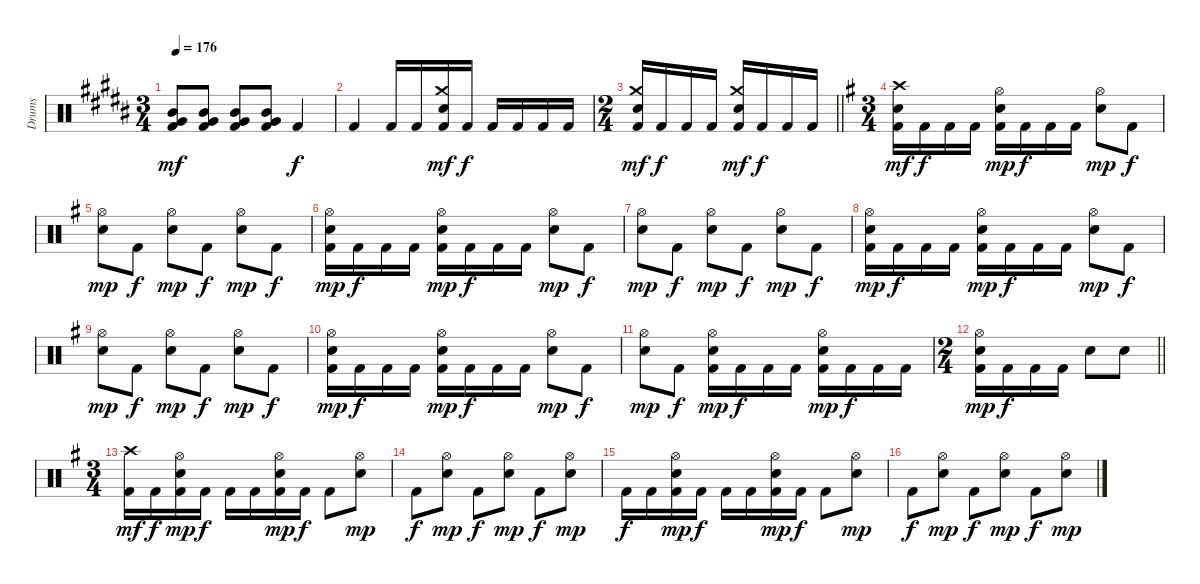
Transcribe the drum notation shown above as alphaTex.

\track ("Drums" "Drums") {instrument percussion}
\staff {score}
\articulation defaults
\ts (3 4)
\tempo 176
\clef neutral
\ks g#minor
("Mid Tom (hit)" "Very Low Tom (hit)" "Kick (hit) 2").8{dy mf} ("Mid Tom (hit)" "Very Low Tom (hit)" "Kick (hit) 2").8 ("Mid Tom (hit)" "Very Low Tom (hit)" "Kick (hit) 2").8 ("Mid Tom (hit)" "Very Low Tom (hit)" "Kick (hit) 2").8 "Kick (hit) 2".4{dy f} |
"Kick (hit) 2".4 "Kick (hit) 2".16 "Kick (hit) 2".16 ("Crash medium (hit)" "Electric Snare (hit)" "Kick (hit) 2").16{dy mf} "Kick (hit) 2".16{dy f} "Kick (hit) 2".16 "Kick (hit) 2".16 "Kick (hit) 2".16 "Kick (hit) 2".16 |
\ts (2 4)
\barLineRight lightlight
("Crash medium (hit)" "Electric Snare (hit)" "Kick (hit) 2").16{dy mf} "Kick (hit) 2".16{dy f} "Kick (hit) 2".16 "Kick (hit) 2".16 ("Crash medium (hit)" "Electric Snare (hit)" "Kick (hit) 2").16{dy mf} "Kick (hit) 2".16{dy f} "Kick (hit) 2".16 "Kick (hit) 2".16 |
\ts (3 4)
\section ("" "")
\ks eminor
("Crash high (hit)" "Electric Snare (hit)" "Kick (hit) 2").16{dy mf} "Kick (hit) 2".16{dy f} "Kick (hit) 2".16 "Kick (hit) 2".16 ("Hi-Hat (open)" "Electric Snare (hit)" "Kick (hit) 2").16{dy mp} "Kick (hit) 2".16{dy f} "Kick (hit) 2".16 "Kick (hit) 2".16 ("Hi-Hat (open)" "Electric Snare (hit)").8{dy mp} "Kick (hit) 2".8{dy f} |
("Hi-Hat (open)" "Electric Snare (hit)").8{dy mp} "Kick (hit) 2".8{dy f} ("Hi-Hat (open)" "Electric Snare (hit)").8{dy mp} "Kick (hit) 2".8{dy f} ("Hi-Hat (open)" "Electric Snare (hit)").8{dy mp} "Kick (hit) 2".8{dy f} |
("Hi-Hat (open)" "Electric Snare (hit)" "Kick (hit) 2").16{dy mp} "Kick (hit) 2".16{dy f} "Kick (hit) 2".16 "Kick (hit) 2".16 ("Hi-Hat (open)" "Electric Snare (hit)" "Kick (hit) 2").16{dy mp} "Kick (hit) 2".16{dy f} "Kick (hit) 2".16 "Kick (hit) 2".16 ("Hi-Hat (open)" "Electric Snare (hit)").8{dy mp} "Kick (hit) 2".8{dy f} |
("Hi-Hat (open)" "Electric Snare (hit)").8{dy mp} "Kick (hit) 2".8{dy f} ("Hi-Hat (open)" "Electric Snare (hit)").8{dy mp} "Kick (hit) 2".8{dy f} ("Hi-Hat (open)" "Electric Snare (hit)").8{dy mp} "Kick (hit) 2".8{dy f} |
("Hi-Hat (open)" "Electric Snare (hit)" "Kick (hit) 2").16{dy mp} "Kick (hit) 2".16{dy f} "Kick (hit) 2".16 "Kick (hit) 2".16 ("Hi-Hat (open)" "Electric Snare (hit)" "Kick (hit) 2").16{dy mp} "Kick (hit) 2".16{dy f} "Kick (hit) 2".16 "Kick (hit) 2".16 ("Hi-Hat (open)" "Electric Snare (hit)").8{dy mp} "Kick (hit) 2".8{dy f} |
("Hi-Hat (open)" "Electric Snare (hit)").8{dy mp} "Kick (hit) 2".8{dy f} ("Hi-Hat (open)" "Electric Snare (hit)").8{dy mp} "Kick (hit) 2".8{dy f} ("Hi-Hat (open)" "Electric Snare (hit)").8{dy mp} "Kick (hit) 2".8{dy f} |
("Hi-Hat (open)" "Electric Snare (hit)" "Kick (hit) 2").16{dy mp} "Kick (hit) 2".16{dy f} "Kick (hit) 2".16 "Kick (hit) 2".16 ("Hi-Hat (open)" "Electric Snare (hit)" "Kick (hit) 2").16{dy mp} "Kick (hit) 2".16{dy f} "Kick (hit) 2".16 "Kick (hit) 2".16 ("Hi-Hat (open)" "Electric Snare (hit)").8{dy mp} "Kick (hit) 2".8{dy f} |
("Hi-Hat (open)" "Electric Snare (hit)").8{dy mp} "Kick (hit) 2".8{dy f} ("Hi-Hat (open)" "Electric Snare (hit)" "Kick (hit) 2").16{dy mp} "Kick (hit) 2".16{dy f} "Kick (hit) 2".16 "Kick (hit) 2".16 ("Hi-Hat (open)" "Electric Snare (hit)" "Kick (hit) 2").16{dy mp} "Kick (hit) 2".16{dy f} "Kick (hit) 2".16 "Kick (hit) 2".16 |
\ts (2 4)
\barLineRight lightlight
("Hi-Hat (open)" "Electric Snare (hit)" "Kick (hit) 2").16{dy mp} "Kick (hit) 2".16{dy f} "Kick (hit) 2".16 "Kick (hit) 2".16 "Electric Snare (hit)".8 "Electric Snare (hit)".8 |
\ts (3 4)
\section ("" "")
("Crash high (hit)" "Kick (hit) 2").16{dy mf} "Kick (hit) 2".16{dy f} ("Hi-Hat (open)" "Electric Snare (hit)" "Kick (hit) 2").16{dy mp} "Kick (hit) 2".16{dy f} "Kick (hit) 2".16 "Kick (hit) 2".16 ("Hi-Hat (open)" "Electric Snare (hit)" "Kick (hit) 2").16{dy mp} "Kick (hit) 2".16{dy f} "Kick (hit) 2".8 ("Hi-Hat (open)" "Electric Snare (hit)").8{dy mp} |
"Kick (hit) 2".8{dy f} ("Hi-Hat (open)" "Electric Snare (hit)").8{dy mp} "Kick (hit) 2".8{dy f} ("Hi-Hat (open)" "Electric Snare (hit)").8{dy mp} "Kick (hit) 2".8{dy f} ("Hi-Hat (open)" "Electric Snare (hit)").8{dy mp} |
"Kick (hit) 2".16{dy f} "Kick (hit) 2".16 ("Hi-Hat (open)" "Electric Snare (hit)" "Kick (hit) 2").16{dy mp} "Kick (hit) 2".16{dy f} "Kick (hit) 2".16 "Kick (hit) 2".16 ("Hi-Hat (open)" "Electric Snare (hit)" "Kick (hit) 2").16{dy mp} "Kick (hit) 2".16{dy f} "Kick (hit) 2".8 ("Hi-Hat (open)" "Electric Snare (hit)").8{dy mp} |
"Kick (hit) 2".8{dy f} ("Hi-Hat (open)" "Electric Snare (hit)").8{dy mp} "Kick (hit) 2".8{dy f} ("Hi-Hat (open)" "Electric Snare (hit)").8{dy mp} "Kick (hit) 2".8{dy f} ("Hi-Hat (open)" "Electric Snare (hit)").8{dy mp}
